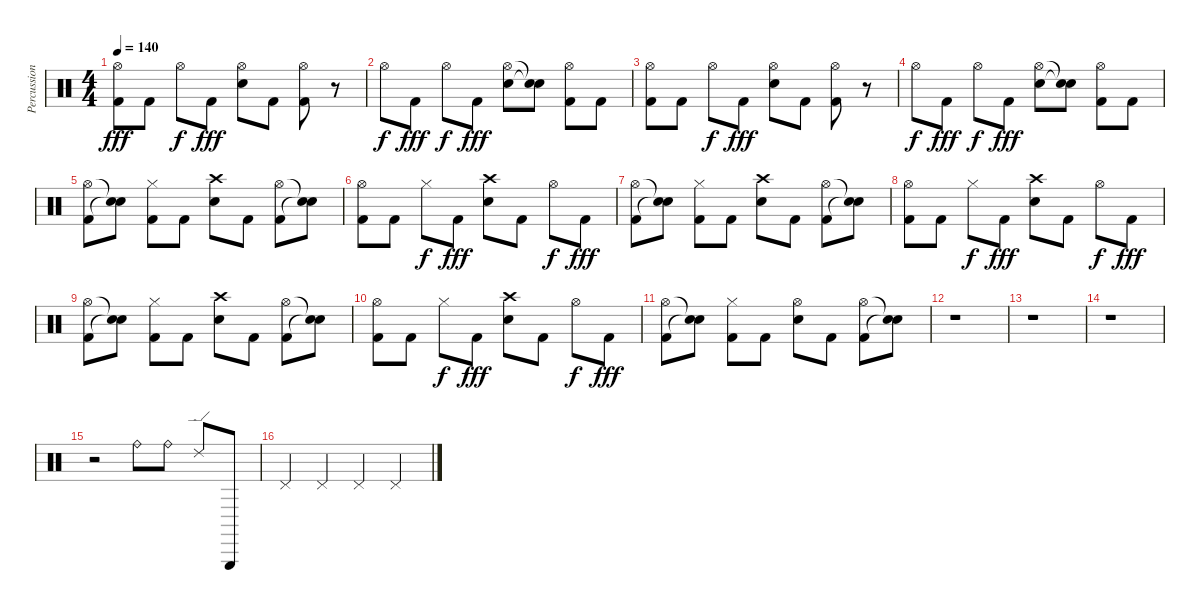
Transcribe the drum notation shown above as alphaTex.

\track ("Percussion" "Percussion") {instrument percussion}
\staff {score}
\articulation defaults
\ts (4 4)
\tempo 140
\clef neutral
\ks c
("Hi-Hat (open)" "Kick (hit) 2").8{dy fff} "Kick (hit) 2".8 "Hi-Hat (open)".8{dy f} "Kick (hit) 2".8{dy fff} ("Hi-Hat (open)" "Electric Snare (hit)").8 "Kick (hit) 2".8 ("Hi-Hat (open)" "Kick (hit) 2").8 r.8 |
"Hi-Hat (open)".8{dy f} "Kick (hit) 2".8{dy fff} "Hi-Hat (open)".8{dy f} "Kick (hit) 2".8{dy fff} ("Hi-Hat (open)" "Electric Snare (hit)").8 ("Snare (hit)"{t} "Snare (hit)"{t}).8 ("Hi-Hat (open)" "Kick (hit) 2").8 "Kick (hit) 2".8 |
("Hi-Hat (open)" "Kick (hit) 2").8 "Kick (hit) 2".8 "Hi-Hat (open)".8{dy f} "Kick (hit) 2".8{dy fff} ("Hi-Hat (open)" "Electric Snare (hit)").8 "Kick (hit) 2".8 ("Hi-Hat (open)" "Kick (hit) 2").8 r.8 |
"Hi-Hat (open)".8{dy f} "Kick (hit) 2".8{dy fff} "Hi-Hat (open)".8{dy f} "Kick (hit) 2".8{dy fff} ("Hi-Hat (open)" "Electric Snare (hit)").8 ("Snare (hit)"{t} "Snare (hit)"{t}).8 ("Hi-Hat (open)" "Kick (hit) 2").8 "Kick (hit) 2".8 |
("Hi-Hat (open)" "Kick (hit) 2").8 ("Snare (hit)"{t} "Snare (hit)"{t}).8 ("Hi-Hat (closed)" "Kick (hit) 2").8 "Kick (hit) 2".8 ("Crash high (hit)" "Electric Snare (hit)").8 "Kick (hit) 2".8 ("Hi-Hat (open)" "Kick (hit) 2").8 ("Snare (hit)"{t} "Snare (hit)"{t}).8 |
("Hi-Hat (open)" "Kick (hit) 2").8 "Kick (hit) 2".8 "Hi-Hat (closed)".8{dy f} "Kick (hit) 2".8{dy fff} ("Crash high (hit)" "Electric Snare (hit)").8 "Kick (hit) 2".8 "Hi-Hat (open)".8{dy f} "Kick (hit) 2".8{dy fff} |
("Hi-Hat (open)" "Kick (hit) 2").8 ("Snare (hit)"{t} "Snare (hit)"{t}).8 ("Hi-Hat (closed)" "Kick (hit) 2").8 "Kick (hit) 2".8 ("Crash high (hit)" "Electric Snare (hit)").8 "Kick (hit) 2".8 ("Hi-Hat (open)" "Kick (hit) 2").8 ("Snare (hit)"{t} "Snare (hit)"{t}).8 |
("Hi-Hat (open)" "Kick (hit) 2").8 "Kick (hit) 2".8 "Hi-Hat (closed)".8{dy f} "Kick (hit) 2".8{dy fff} ("Crash high (hit)" "Electric Snare (hit)").8 "Kick (hit) 2".8 "Hi-Hat (open)".8{dy f} "Kick (hit) 2".8{dy fff} |
("Hi-Hat (open)" "Kick (hit) 2").8 ("Snare (hit)"{t} "Snare (hit)"{t}).8 ("Hi-Hat (closed)" "Kick (hit) 2").8 "Kick (hit) 2".8 ("Crash high (hit)" "Electric Snare (hit)").8 "Kick (hit) 2".8 ("Hi-Hat (open)" "Kick (hit) 2").8 ("Snare (hit)"{t} "Snare (hit)"{t}).8 |
("Hi-Hat (open)" "Kick (hit) 2").8 "Kick (hit) 2".8 "Hi-Hat (closed)".8{dy f} "Kick (hit) 2".8{dy fff} ("Crash high (hit)" "Electric Snare (hit)").8 "Kick (hit) 2".8 "Hi-Hat (open)".8{dy f} "Kick (hit) 2".8{dy fff} |
("Hi-Hat (open)" "Kick (hit) 2").8 ("Snare (hit)"{t} "Snare (hit)"{t}).8 ("Hi-Hat (closed)" "Kick (hit) 2").8 "Kick (hit) 2".8 ("Hi-Hat (open)" "Electric Snare (hit)").8 "Kick (hit) 2".8 ("Hi-Hat (open)" "Kick (hit) 2").8 ("Snare (hit)"{t} "Snare (hit)"{t}).8 |
r.1 |
r.1 |
r.1 |
r.2 "Ride (bell)".8 "Ride (bell)".8 "Ride (edge) 2".8 "Triangle (hit)".8 |
"Pedal Hi-Hat (hit)".4 "Pedal Hi-Hat (hit)".4 "Pedal Hi-Hat (hit)".4 "Pedal Hi-Hat (hit)".4
